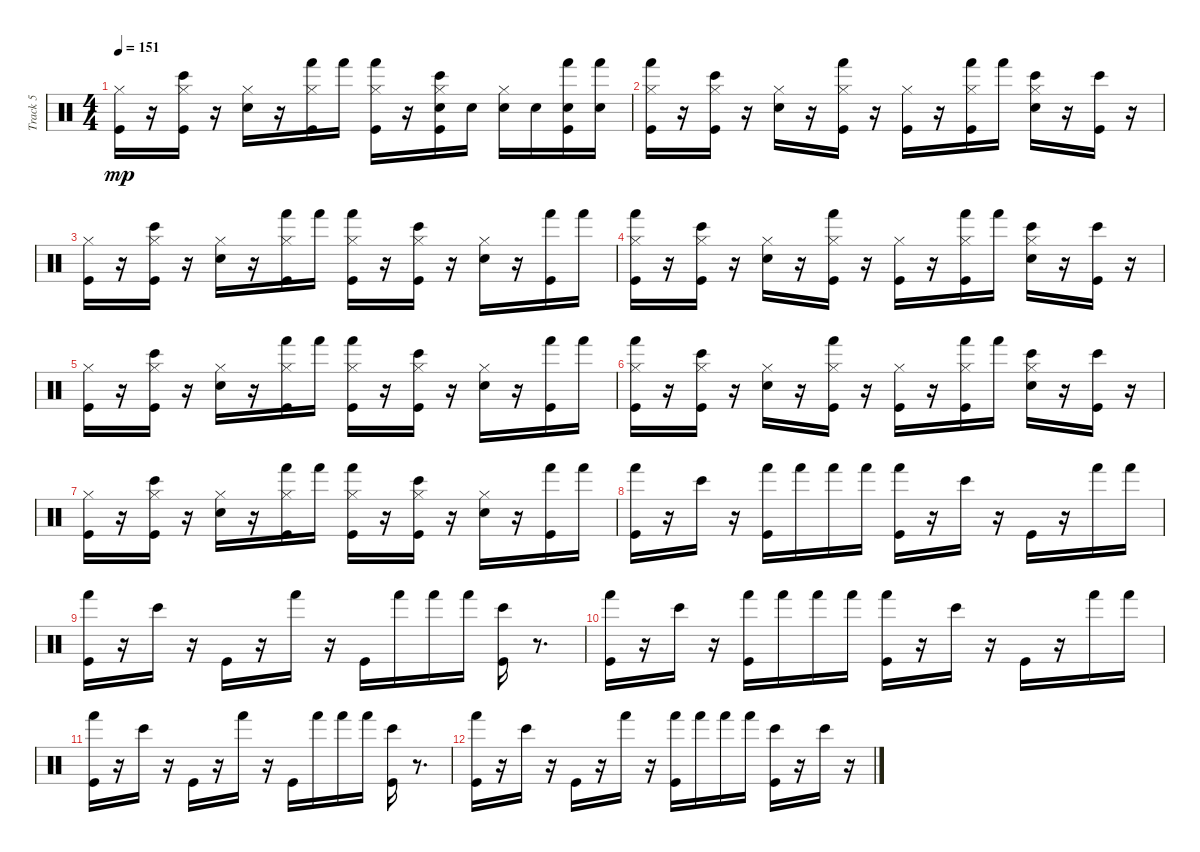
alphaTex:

\track ("Track 5" "Track 5") {instrument percussion}
\staff {score}
\articulation defaults
\ts (4 4)
\tempo 151
\clef neutral
\ks c
("Hi-Hat (closed)" "Kick (hit)").16{dy mp} r.16 ("Hi-Hat (closed)" "Kick (hit)" "Bongo High (hit)").16 r.16 ("Hi-Hat (closed)" "Snare (hit) 2").16 r.16 ("Hi-Hat (closed)" "Kick (hit)" "Hand (hit)").16 "Hand (hit)".16 ("Hi-Hat (closed)" "Kick (hit)" "Hand (hit)").16 r.16 ("Hi-Hat (closed)" "Kick (hit)" "Bongo High (hit)" "Snare (hit) 2").16 "Snare (hit) 2".16 ("Hi-Hat (closed)" "Snare (hit) 2").16 "Snare (hit) 2".16 ("Kick (hit)" "Hand (hit)" "Snare (hit) 2").16 ("Hand (hit)" "Snare (hit) 2").16 |
("Hi-Hat (closed)" "Kick (hit)" "Hand (hit)").16 r.16 ("Hi-Hat (closed)" "Kick (hit)" "Bongo High (hit)").16 r.16 ("Hi-Hat (closed)" "Snare (hit) 2").16 r.16 ("Hi-Hat (closed)" "Kick (hit)" "Hand (hit)").16 r.16 ("Hi-Hat (closed)" "Kick (hit)").16 r.16 ("Hi-Hat (closed)" "Hand (hit)" "Kick (hit)").16 "Hand (hit)".16 ("Hi-Hat (closed)" "Bongo High (hit)" "Snare (hit) 2").16 r.16 ("Bongo High (hit)" "Kick (hit)").16 r.16 |
("Hi-Hat (closed)" "Kick (hit)").16 r.16 ("Hi-Hat (closed)" "Kick (hit)" "Bongo High (hit)").16 r.16 ("Hi-Hat (closed)" "Snare (hit) 2").16 r.16 ("Hi-Hat (closed)" "Kick (hit)" "Hand (hit)").16 "Hand (hit)".16 ("Hi-Hat (closed)" "Kick (hit)" "Hand (hit)").16 r.16 ("Hi-Hat (closed)" "Kick (hit)" "Bongo High (hit)").16 r.16 ("Hi-Hat (closed)" "Snare (hit) 2").16 r.16 ("Kick (hit)" "Hand (hit)").16 "Hand (hit)".16 |
("Hi-Hat (closed)" "Kick (hit)" "Hand (hit)").16 r.16 ("Hi-Hat (closed)" "Kick (hit)" "Bongo High (hit)").16 r.16 ("Hi-Hat (closed)" "Snare (hit) 2").16 r.16 ("Hi-Hat (closed)" "Kick (hit)" "Hand (hit)").16 r.16 ("Hi-Hat (closed)" "Kick (hit)").16 r.16 ("Hi-Hat (closed)" "Hand (hit)" "Kick (hit)").16 "Hand (hit)".16 ("Hi-Hat (closed)" "Bongo High (hit)" "Snare (hit) 2").16 r.16 ("Bongo High (hit)" "Kick (hit)").16 r.16 |
("Hi-Hat (closed)" "Kick (hit)").16 r.16 ("Hi-Hat (closed)" "Kick (hit)" "Bongo High (hit)").16 r.16 ("Hi-Hat (closed)" "Snare (hit) 2").16 r.16 ("Hi-Hat (closed)" "Kick (hit)" "Hand (hit)").16 "Hand (hit)".16 ("Hi-Hat (closed)" "Kick (hit)" "Hand (hit)").16 r.16 ("Hi-Hat (closed)" "Kick (hit)" "Bongo High (hit)").16 r.16 ("Hi-Hat (closed)" "Snare (hit) 2").16 r.16 ("Kick (hit)" "Hand (hit)").16 "Hand (hit)".16 |
("Hi-Hat (closed)" "Kick (hit)" "Hand (hit)").16 r.16 ("Hi-Hat (closed)" "Kick (hit)" "Bongo High (hit)").16 r.16 ("Hi-Hat (closed)" "Snare (hit) 2").16 r.16 ("Hi-Hat (closed)" "Kick (hit)" "Hand (hit)").16 r.16 ("Hi-Hat (closed)" "Kick (hit)").16 r.16 ("Hi-Hat (closed)" "Hand (hit)" "Kick (hit)").16 "Hand (hit)".16 ("Hi-Hat (closed)" "Bongo High (hit)" "Snare (hit) 2").16 r.16 ("Bongo High (hit)" "Kick (hit)").16 r.16 |
("Hi-Hat (closed)" "Kick (hit)").16 r.16 ("Hi-Hat (closed)" "Kick (hit)" "Bongo High (hit)").16 r.16 ("Hi-Hat (closed)" "Snare (hit) 2").16 r.16 ("Hi-Hat (closed)" "Kick (hit)" "Hand (hit)").16 "Hand (hit)".16 ("Hi-Hat (closed)" "Kick (hit)" "Hand (hit)").16 r.16 ("Hi-Hat (closed)" "Kick (hit)" "Bongo High (hit)").16 r.16 ("Hi-Hat (closed)" "Snare (hit) 2").16 r.16 ("Kick (hit)" "Hand (hit)").16 "Hand (hit)".16 |
("Kick (hit)" "Hand (hit)").16 r.16 "Bongo High (hit)".16 r.16 ("Kick (hit)" "Hand (hit)").16 "Hand (hit)".16 "Hand (hit)".16 "Hand (hit)".16 ("Kick (hit)" "Hand (hit)").16 r.16 "Bongo High (hit)".16 r.16 "Kick (hit)".16 r.16 "Hand (hit)".16 "Hand (hit)".16 |
("Hand (hit)" "Kick (hit)").16 r.16 "Bongo High (hit)".16 r.16 "Kick (hit)".16 r.16 "Hand (hit)".16 r.16 "Kick (hit)".16 "Hand (hit)".16 "Hand (hit)".16 "Hand (hit)".16 ("Kick (hit)" "Bongo High (hit)").16 r.8{d} |
("Kick (hit)" "Hand (hit)").16 r.16 "Bongo High (hit)".16 r.16 ("Kick (hit)" "Hand (hit)").16 "Hand (hit)".16 "Hand (hit)".16 "Hand (hit)".16 ("Kick (hit)" "Hand (hit)").16 r.16 "Bongo High (hit)".16 r.16 "Kick (hit)".16 r.16 "Hand (hit)".16 "Hand (hit)".16 |
("Hand (hit)" "Kick (hit)").16 r.16 "Bongo High (hit)".16 r.16 "Kick (hit)".16 r.16 "Hand (hit)".16 r.16 "Kick (hit)".16 "Hand (hit)".16 "Hand (hit)".16 "Hand (hit)".16 ("Kick (hit)" "Bongo High (hit)").16 r.8{d} |
("Kick (hit)" "Hand (hit)").16 r.16 "Bongo High (hit)".16 r.16 "Kick (hit)".16 r.16 "Hand (hit)".16 r.16 ("Kick (hit)" "Hand (hit)").16 "Hand (hit)".16 "Hand (hit)".16 "Hand (hit)".16 ("Kick (hit)" "Bongo High (hit)").16 r.16 "Bongo High (hit)".16 r.16
